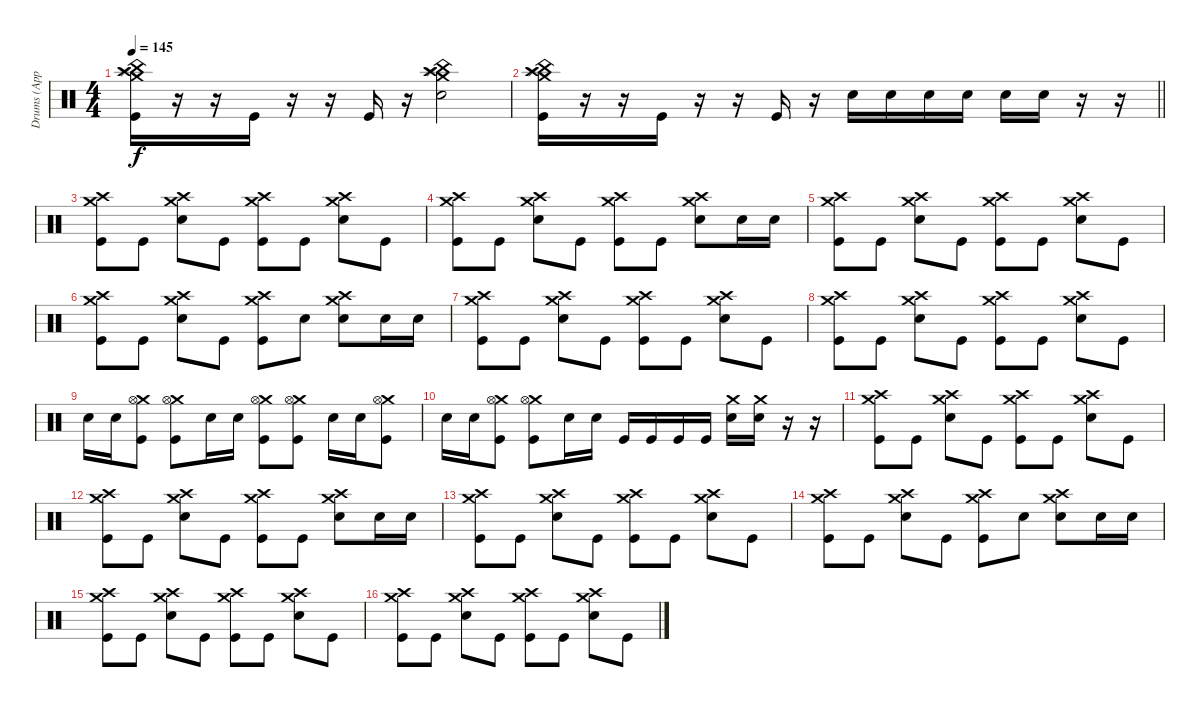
\track ("Drums (Approx.)" "Drums (App") {instrument percussion}
\staff {score}
\articulation defaults
\ts (4 4)
\tempo 145
\clef neutral
\ks c
("Crash high (hit)" "Crash medium (hit)" "Splash (hit)" "China (hit)" "Kick (hit)").16{dy f} r.16 r.16 "Kick (hit)".16 r.16 r.16 "Kick (hit)".16 r.16 ("Crash high (hit)" "Crash medium (hit)" "Splash (hit)" "China (hit)" "Electric Snare (hit)").2 |
\barLineRight lightlight
("Crash high (hit)" "Crash medium (hit)" "Splash (hit)" "China (hit)" "Kick (hit)").16 r.16 r.16 "Kick (hit)".16 r.16 r.16 "Kick (hit)".16 r.16 "Electric Snare (hit)".16 "Electric Snare (hit)".16 "Electric Snare (hit)".16 "Electric Snare (hit)".16 "Electric Snare (hit)".16 "Electric Snare (hit)".16 r.16 r.16 |
\section ("" "")
("Crash medium (hit)" "Crash high (hit)" "Kick (hit)").8 "Kick (hit)".8 ("Crash medium (hit)" "Crash high (hit)" "Electric Snare (hit)").8 "Kick (hit)".8 ("Crash medium (hit)" "Crash high (hit)" "Kick (hit)").8 "Kick (hit)".8 ("Crash medium (hit)" "Crash high (hit)" "Electric Snare (hit)").8 "Kick (hit)".8 |
("Crash medium (hit)" "Crash high (hit)" "Kick (hit)").8 "Kick (hit)".8 ("Crash medium (hit)" "Crash high (hit)" "Electric Snare (hit)").8 "Kick (hit)".8 ("Crash medium (hit)" "Crash high (hit)" "Kick (hit)").8 "Kick (hit)".8 ("Crash medium (hit)" "Crash high (hit)" "Electric Snare (hit)").8 "Electric Snare (hit)".16 "Electric Snare (hit)".16 |
("Crash medium (hit)" "Crash high (hit)" "Kick (hit)").8 "Kick (hit)".8 ("Crash medium (hit)" "Crash high (hit)" "Electric Snare (hit)").8 "Kick (hit)".8 ("Crash medium (hit)" "Crash high (hit)" "Kick (hit)").8 "Kick (hit)".8 ("Crash medium (hit)" "Crash high (hit)" "Electric Snare (hit)").8 "Kick (hit)".8 |
("Crash medium (hit)" "Crash high (hit)" "Kick (hit)").8 "Kick (hit)".8 ("Crash medium (hit)" "Crash high (hit)" "Electric Snare (hit)").8 "Kick (hit)".8 ("Crash medium (hit)" "Crash high (hit)" "Kick (hit)").8 "Electric Snare (hit)".8 ("Crash medium (hit)" "Crash high (hit)" "Electric Snare (hit)").8 "Electric Snare (hit)".16 "Electric Snare (hit)".16 |
("Crash medium (hit)" "Crash high (hit)" "Kick (hit)").8 "Kick (hit)".8 ("Crash medium (hit)" "Crash high (hit)" "Electric Snare (hit)").8 "Kick (hit)".8 ("Crash medium (hit)" "Crash high (hit)" "Kick (hit)").8 "Kick (hit)".8 ("Crash medium (hit)" "Crash high (hit)" "Electric Snare (hit)").8 "Kick (hit)".8 |
("Crash medium (hit)" "Crash high (hit)" "Kick (hit)").8 "Kick (hit)".8 ("Crash medium (hit)" "Crash high (hit)" "Electric Snare (hit)").8 "Kick (hit)".8 ("Crash medium (hit)" "Crash high (hit)" "Kick (hit)").8 "Kick (hit)".8 ("Crash medium (hit)" "Crash high (hit)" "Electric Snare (hit)").8 "Kick (hit)".8 |
"Electric Snare (hit)".16 "Electric Snare (hit)".16 ("Crash medium (hit)" "Hi-Hat (open)" "Kick (hit)").8 ("Crash medium (hit)" "Hi-Hat (open)" "Kick (hit)").8 "Electric Snare (hit)".16 "Electric Snare (hit)".16 ("Crash medium (hit)" "Hi-Hat (open)" "Kick (hit)").8 ("Crash medium (hit)" "Hi-Hat (open)" "Kick (hit)").8 "Electric Snare (hit)".16 "Electric Snare (hit)".16 ("Crash medium (hit)" "Hi-Hat (open)" "Kick (hit)").8 |
"Electric Snare (hit)".16 "Electric Snare (hit)".16 ("Crash medium (hit)" "Hi-Hat (open)" "Kick (hit)").8 ("Crash medium (hit)" "Hi-Hat (open)" "Kick (hit)").8 "Electric Snare (hit)".16 "Electric Snare (hit)".16 "Kick (hit)".16 "Kick (hit)".16 "Kick (hit)".16 "Kick (hit)".16 ("Crash medium (hit)" "Electric Snare (hit)").16 ("Crash medium (hit)" "Electric Snare (hit)").16 r.16 r.16 |
("Crash medium (hit)" "Crash high (hit)" "Kick (hit)").8 "Kick (hit)".8 ("Crash medium (hit)" "Crash high (hit)" "Electric Snare (hit)").8 "Kick (hit)".8 ("Crash medium (hit)" "Crash high (hit)" "Kick (hit)").8 "Kick (hit)".8 ("Crash medium (hit)" "Crash high (hit)" "Electric Snare (hit)").8 "Kick (hit)".8 |
("Crash medium (hit)" "Crash high (hit)" "Kick (hit)").8 "Kick (hit)".8 ("Crash medium (hit)" "Crash high (hit)" "Electric Snare (hit)").8 "Kick (hit)".8 ("Crash medium (hit)" "Crash high (hit)" "Kick (hit)").8 "Kick (hit)".8 ("Crash medium (hit)" "Crash high (hit)" "Electric Snare (hit)").8 "Electric Snare (hit)".16 "Electric Snare (hit)".16 |
("Crash medium (hit)" "Crash high (hit)" "Kick (hit)").8 "Kick (hit)".8 ("Crash medium (hit)" "Crash high (hit)" "Electric Snare (hit)").8 "Kick (hit)".8 ("Crash medium (hit)" "Crash high (hit)" "Kick (hit)").8 "Kick (hit)".8 ("Crash medium (hit)" "Crash high (hit)" "Electric Snare (hit)").8 "Kick (hit)".8 |
("Crash medium (hit)" "Crash high (hit)" "Kick (hit)").8 "Kick (hit)".8 ("Crash medium (hit)" "Crash high (hit)" "Electric Snare (hit)").8 "Kick (hit)".8 ("Crash medium (hit)" "Crash high (hit)" "Kick (hit)").8 "Electric Snare (hit)".8 ("Crash medium (hit)" "Crash high (hit)" "Electric Snare (hit)").8 "Electric Snare (hit)".16 "Electric Snare (hit)".16 |
("Crash medium (hit)" "Crash high (hit)" "Kick (hit)").8 "Kick (hit)".8 ("Crash medium (hit)" "Crash high (hit)" "Electric Snare (hit)").8 "Kick (hit)".8 ("Crash medium (hit)" "Crash high (hit)" "Kick (hit)").8 "Kick (hit)".8 ("Crash medium (hit)" "Crash high (hit)" "Electric Snare (hit)").8 "Kick (hit)".8 |
("Crash medium (hit)" "Crash high (hit)" "Kick (hit)").8 "Kick (hit)".8 ("Crash medium (hit)" "Crash high (hit)" "Electric Snare (hit)").8 "Kick (hit)".8 ("Crash medium (hit)" "Crash high (hit)" "Kick (hit)").8 "Kick (hit)".8 ("Crash medium (hit)" "Crash high (hit)" "Electric Snare (hit)").8 "Kick (hit)".8
